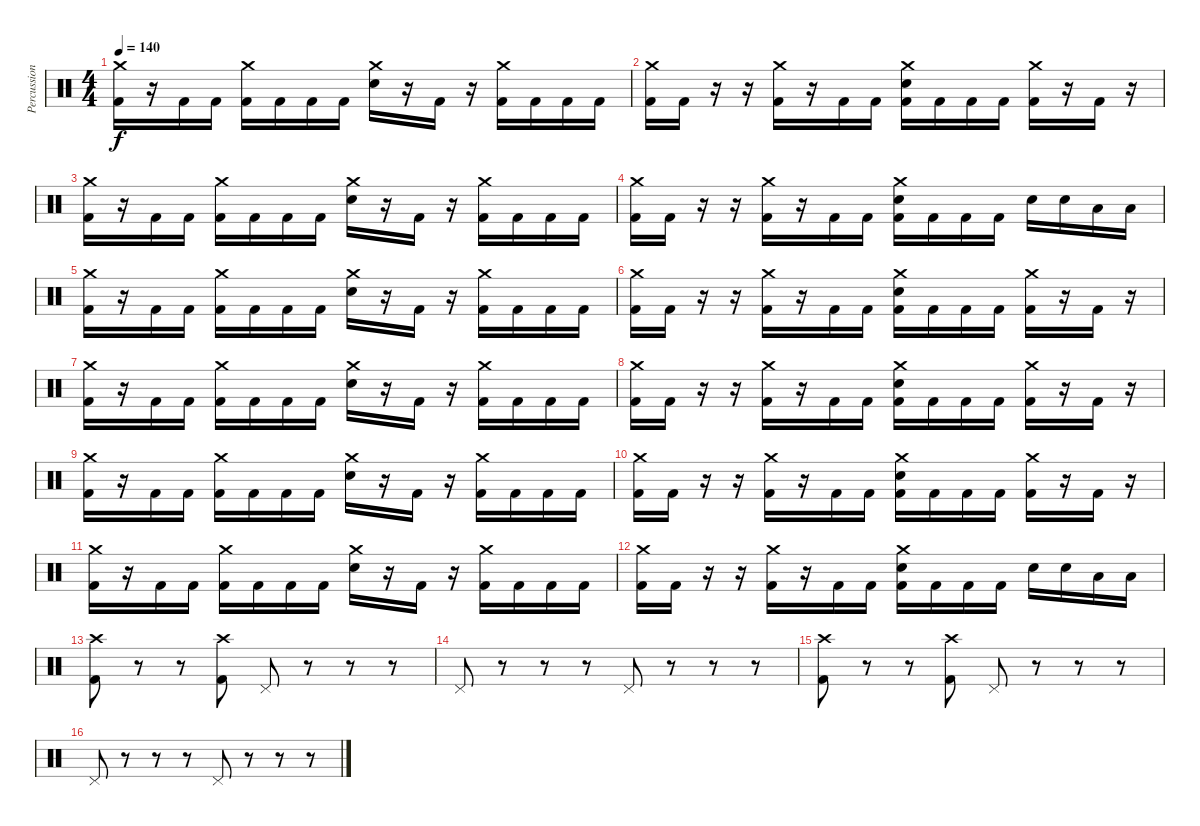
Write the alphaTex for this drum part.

\track ("Percussion" "Percussion") {instrument percussion}
\staff {score}
\articulation defaults
\ts (4 4)
\tempo 140
\clef neutral
\ks c
("Crash medium (hit)" "Kick (hit) 2").16{dy f} r.16 "Kick (hit) 2".16 "Kick (hit) 2".16 ("Crash medium (hit)" "Kick (hit) 2").16 "Kick (hit) 2".16 "Kick (hit) 2".16 "Kick (hit) 2".16 ("Crash medium (hit)" "Electric Snare (hit)").16 r.16 "Kick (hit) 2".16 r.16 ("Crash medium (hit)" "Kick (hit) 2").16 "Kick (hit) 2".16 "Kick (hit) 2".16 "Kick (hit) 2".16 |
("Crash medium (hit)" "Kick (hit) 2").16 "Kick (hit) 2".16 r.16 r.16 ("Crash medium (hit)" "Kick (hit) 2").16 r.16 "Kick (hit) 2".16 "Kick (hit) 2".16 ("Crash medium (hit)" "Electric Snare (hit)" "Kick (hit) 2").16 "Kick (hit) 2".16 "Kick (hit) 2".16 "Kick (hit) 2".16 ("Crash medium (hit)" "Kick (hit) 2").16 r.16 "Kick (hit) 2".16 r.16 |
("Crash medium (hit)" "Kick (hit) 2").16 r.16 "Kick (hit) 2".16 "Kick (hit) 2".16 ("Crash medium (hit)" "Kick (hit) 2").16 "Kick (hit) 2".16 "Kick (hit) 2".16 "Kick (hit) 2".16 ("Crash medium (hit)" "Electric Snare (hit)").16 r.16 "Kick (hit) 2".16 r.16 ("Crash medium (hit)" "Kick (hit) 2").16 "Kick (hit) 2".16 "Kick (hit) 2".16 "Kick (hit) 2".16 |
("Crash medium (hit)" "Kick (hit) 2").16 "Kick (hit) 2".16 r.16 r.16 ("Crash medium (hit)" "Kick (hit) 2").16 r.16 "Kick (hit) 2".16 "Kick (hit) 2".16 ("Crash medium (hit)" "Electric Snare (hit)" "Kick (hit) 2").16 "Kick (hit) 2".16 "Kick (hit) 2".16 "Kick (hit) 2".16 "Electric Snare (hit)".16 "Electric Snare (hit)".16 "Low Tom (hit)".16 "Low Tom (hit)".16 |
("Crash medium (hit)" "Kick (hit) 2").16 r.16 "Kick (hit) 2".16 "Kick (hit) 2".16 ("Crash medium (hit)" "Kick (hit) 2").16 "Kick (hit) 2".16 "Kick (hit) 2".16 "Kick (hit) 2".16 ("Crash medium (hit)" "Electric Snare (hit)").16 r.16 "Kick (hit) 2".16 r.16 ("Crash medium (hit)" "Kick (hit) 2").16 "Kick (hit) 2".16 "Kick (hit) 2".16 "Kick (hit) 2".16 |
("Crash medium (hit)" "Kick (hit) 2").16 "Kick (hit) 2".16 r.16 r.16 ("Crash medium (hit)" "Kick (hit) 2").16 r.16 "Kick (hit) 2".16 "Kick (hit) 2".16 ("Crash medium (hit)" "Electric Snare (hit)" "Kick (hit) 2").16 "Kick (hit) 2".16 "Kick (hit) 2".16 "Kick (hit) 2".16 ("Crash medium (hit)" "Kick (hit) 2").16 r.16 "Kick (hit) 2".16 r.16 |
("Crash medium (hit)" "Kick (hit) 2").16 r.16 "Kick (hit) 2".16 "Kick (hit) 2".16 ("Crash medium (hit)" "Kick (hit) 2").16 "Kick (hit) 2".16 "Kick (hit) 2".16 "Kick (hit) 2".16 ("Crash medium (hit)" "Electric Snare (hit)").16 r.16 "Kick (hit) 2".16 r.16 ("Crash medium (hit)" "Kick (hit) 2").16 "Kick (hit) 2".16 "Kick (hit) 2".16 "Kick (hit) 2".16 |
("Crash medium (hit)" "Kick (hit) 2").16 "Kick (hit) 2".16 r.16 r.16 ("Crash medium (hit)" "Kick (hit) 2").16 r.16 "Kick (hit) 2".16 "Kick (hit) 2".16 ("Crash medium (hit)" "Electric Snare (hit)" "Kick (hit) 2").16 "Kick (hit) 2".16 "Kick (hit) 2".16 "Kick (hit) 2".16 ("Crash medium (hit)" "Kick (hit) 2").16 r.16 "Kick (hit) 2".16 r.16 |
("Crash medium (hit)" "Kick (hit) 2").16 r.16 "Kick (hit) 2".16 "Kick (hit) 2".16 ("Crash medium (hit)" "Kick (hit) 2").16 "Kick (hit) 2".16 "Kick (hit) 2".16 "Kick (hit) 2".16 ("Crash medium (hit)" "Electric Snare (hit)").16 r.16 "Kick (hit) 2".16 r.16 ("Crash medium (hit)" "Kick (hit) 2").16 "Kick (hit) 2".16 "Kick (hit) 2".16 "Kick (hit) 2".16 |
("Crash medium (hit)" "Kick (hit) 2").16 "Kick (hit) 2".16 r.16 r.16 ("Crash medium (hit)" "Kick (hit) 2").16 r.16 "Kick (hit) 2".16 "Kick (hit) 2".16 ("Crash medium (hit)" "Electric Snare (hit)" "Kick (hit) 2").16 "Kick (hit) 2".16 "Kick (hit) 2".16 "Kick (hit) 2".16 ("Crash medium (hit)" "Kick (hit) 2").16 r.16 "Kick (hit) 2".16 r.16 |
("Crash medium (hit)" "Kick (hit) 2").16 r.16 "Kick (hit) 2".16 "Kick (hit) 2".16 ("Crash medium (hit)" "Kick (hit) 2").16 "Kick (hit) 2".16 "Kick (hit) 2".16 "Kick (hit) 2".16 ("Crash medium (hit)" "Electric Snare (hit)").16 r.16 "Kick (hit) 2".16 r.16 ("Crash medium (hit)" "Kick (hit) 2").16 "Kick (hit) 2".16 "Kick (hit) 2".16 "Kick (hit) 2".16 |
("Crash medium (hit)" "Kick (hit) 2").16 "Kick (hit) 2".16 r.16 r.16 ("Crash medium (hit)" "Kick (hit) 2").16 r.16 "Kick (hit) 2".16 "Kick (hit) 2".16 ("Crash medium (hit)" "Electric Snare (hit)" "Kick (hit) 2").16 "Kick (hit) 2".16 "Kick (hit) 2".16 "Kick (hit) 2".16 "Electric Snare (hit)".16 "Electric Snare (hit)".16 "Low Tom (hit)".16 "Low Tom (hit)".16 |
("Crash high (hit)" "Kick (hit) 2").8 r.8 r.8 ("Crash high (hit)" "Kick (hit) 2").8 "Pedal Hi-Hat (hit)".8 r.8 r.8 r.8 |
"Pedal Hi-Hat (hit)".8 r.8 r.8 r.8 "Pedal Hi-Hat (hit)".8 r.8 r.8 r.8 |
("Crash high (hit)" "Kick (hit) 2").8 r.8 r.8 ("Crash high (hit)" "Kick (hit) 2").8 "Pedal Hi-Hat (hit)".8 r.8 r.8 r.8 |
"Pedal Hi-Hat (hit)".8 r.8 r.8 r.8 "Pedal Hi-Hat (hit)".8 r.8 r.8 r.8
